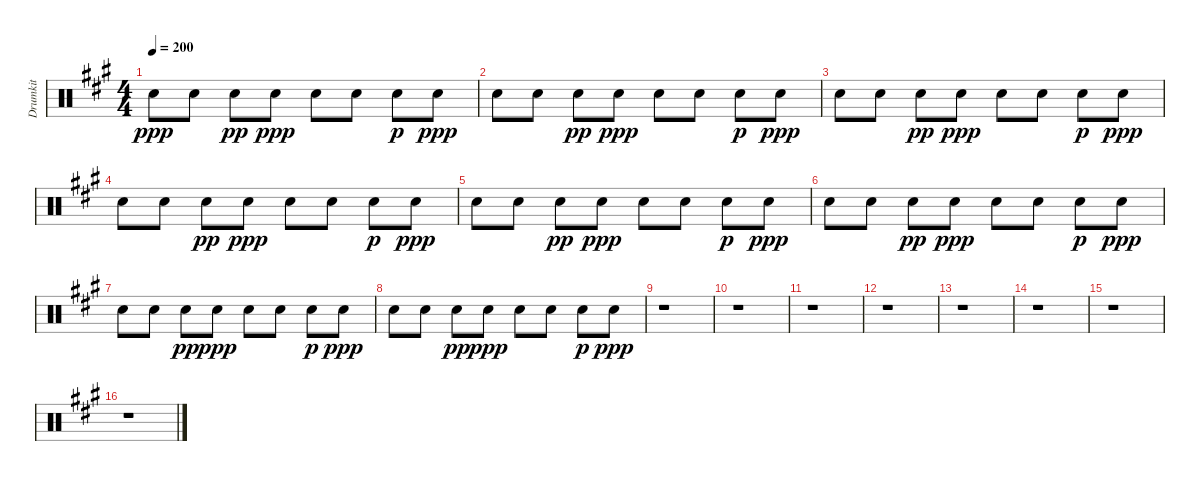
\track ("Drumkit" "Drumkit") {instrument percussion}
\staff {score}
\articulation defaults
\ts (4 4)
\tempo 200
\clef neutral
\ks a "Snare (hit) 2".8{dy ppp} "Snare (hit) 2".8 "Snare (hit) 2".8{dy pp} "Snare (hit) 2".8{dy ppp} "Snare (hit) 2".8 "Snare (hit) 2".8 "Snare (hit) 2".8{dy p} "Snare (hit) 2".8{dy ppp}
|
"Snare (hit) 2".8 "Snare (hit) 2".8 "Snare (hit) 2".8{dy pp} "Snare (hit) 2".8{dy ppp} "Snare (hit) 2".8 "Snare (hit) 2".8 "Snare (hit) 2".8{dy p} "Snare (hit) 2".8{dy ppp} |
"Snare (hit) 2".8 "Snare (hit) 2".8 "Snare (hit) 2".8{dy pp} "Snare (hit) 2".8{dy ppp} "Snare (hit) 2".8 "Snare (hit) 2".8 "Snare (hit) 2".8{dy p} "Snare (hit) 2".8{dy ppp} |
"Snare (hit) 2".8 "Snare (hit) 2".8 "Snare (hit) 2".8{dy pp} "Snare (hit) 2".8{dy ppp} "Snare (hit) 2".8 "Snare (hit) 2".8 "Snare (hit) 2".8{dy p} "Snare (hit) 2".8{dy ppp} |
"Snare (hit) 2".8 "Snare (hit) 2".8 "Snare (hit) 2".8{dy pp} "Snare (hit) 2".8{dy ppp} "Snare (hit) 2".8 "Snare (hit) 2".8 "Snare (hit) 2".8{dy p} "Snare (hit) 2".8{dy ppp} |
"Snare (hit) 2".8 "Snare (hit) 2".8 "Snare (hit) 2".8{dy pp} "Snare (hit) 2".8{dy ppp} "Snare (hit) 2".8 "Snare (hit) 2".8 "Snare (hit) 2".8{dy p} "Snare (hit) 2".8{dy ppp} |
"Snare (hit) 2".8 "Snare (hit) 2".8 "Snare (hit) 2".8{dy pp} "Snare (hit) 2".8{dy ppp} "Snare (hit) 2".8 "Snare (hit) 2".8 "Snare (hit) 2".8{dy p} "Snare (hit) 2".8{dy ppp} |
"Snare (hit) 2".8 "Snare (hit) 2".8 "Snare (hit) 2".8{dy pp} "Snare (hit) 2".8{dy ppp} "Snare (hit) 2".8 "Snare (hit) 2".8 "Snare (hit) 2".8{dy p} "Snare (hit) 2".8{dy ppp} |
r.1 |
r.1 |
r.1 |
r.1 |
r.1 |
r.1 |
r.1 |
r.1
